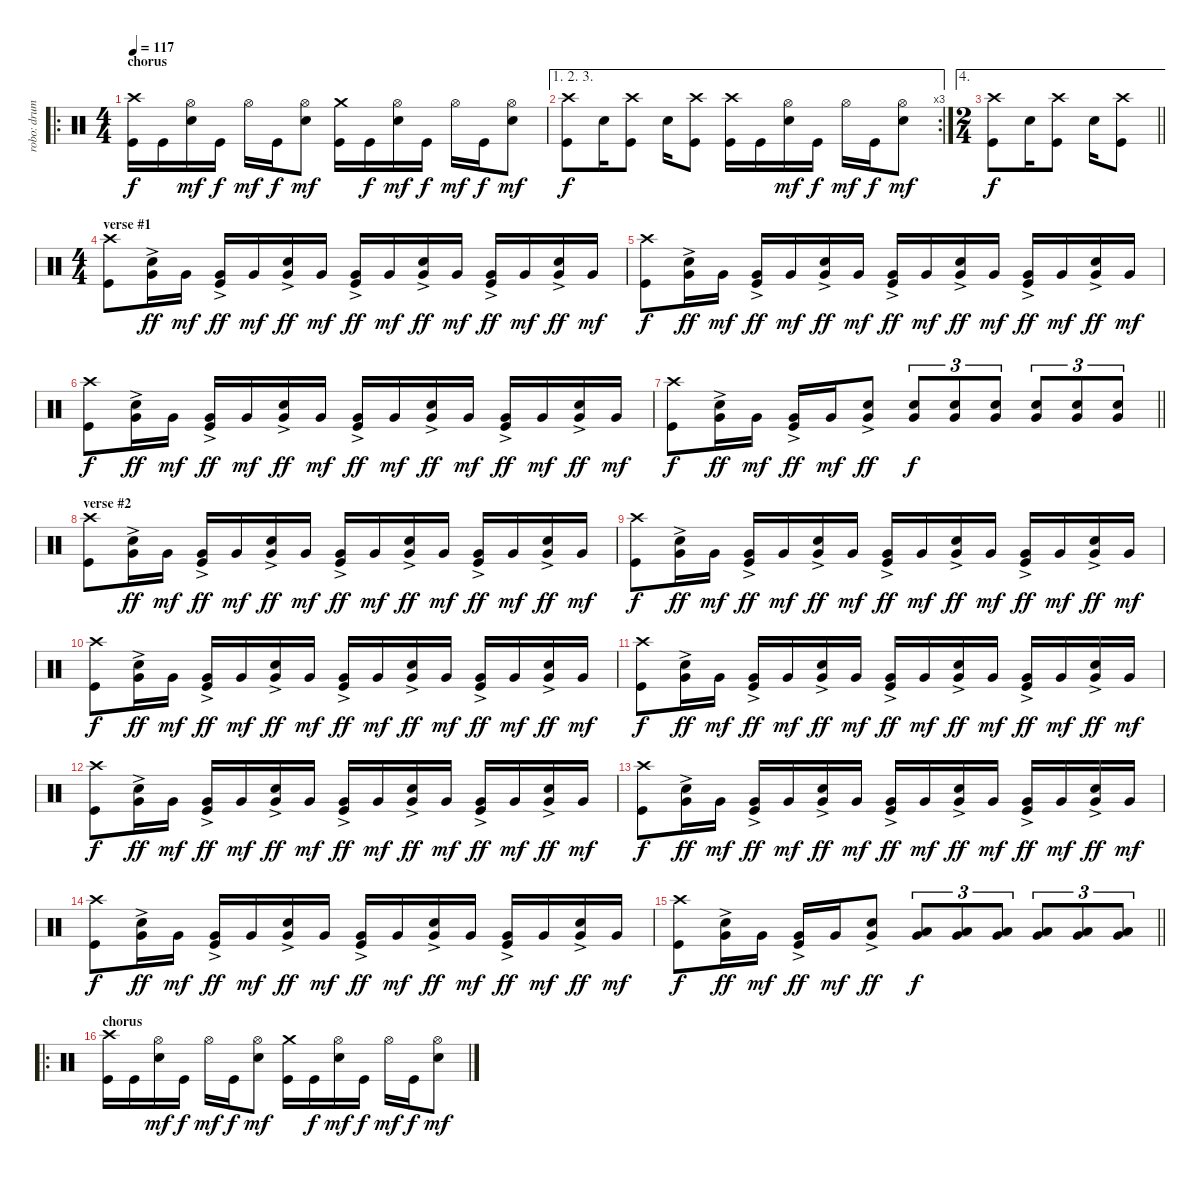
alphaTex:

\track ("robo: drums" "robo: drum") {instrument percussion}
\staff {score}
\articulation defaults
\ro
\ts (4 4)
\section ("" "chorus")
\tempo 117
\clef neutral
\ks c
("Crash high (hit)" "Kick (hit)").16{dy f} "Kick (hit)".16 ("Hi-Hat (open)" "Electric Snare (hit)").16{dy mf} "Kick (hit)".16{dy f} "Hi-Hat (open)".16{dy mf} "Kick (hit)".16{dy f} ("Hi-Hat (open)" "Electric Snare (hit)").8{dy mf} ("Crash medium (hit)" "Kick (hit)").16 "Kick (hit)".16{dy f} ("Hi-Hat (open)" "Electric Snare (hit)").16{dy mf} "Kick (hit)".16{dy f} "Hi-Hat (open)".16{dy mf} "Kick (hit)".16{dy f} ("Hi-Hat (open)" "Electric Snare (hit)").8{dy mf} |
\ae (1 2 3)
\rc 3
("Crash high (hit)" "Kick (hit)").8{dy f} "Electric Snare (hit)".16 ("Crash high (hit)" "Kick (hit)").8 "Electric Snare (hit)".16 ("Crash high (hit)" "Kick (hit)").8 ("Crash high (hit)" "Kick (hit)").16 "Kick (hit)".16 ("Hi-Hat (open)" "Electric Snare (hit)").16{dy mf} "Kick (hit)".16{dy f} "Hi-Hat (open)".16{dy mf} "Kick (hit)".16{dy f} ("Hi-Hat (open)" "Electric Snare (hit)").8{dy mf} |
\ae 4
\ts (2 4)
\barLineRight lightlight
("Crash high (hit)" "Kick (hit)").8{dy f} "Electric Snare (hit)".16 ("Crash high (hit)" "Kick (hit)").8 "Electric Snare (hit)".16 ("Crash high (hit)" "Kick (hit)").8 |
\ts (4 4)
\section ("" "verse #1")
("Crash high (hit)" "Kick (hit)").8 ("Electric Snare (hit)"{ac} "Very Low Tom (hit)"{ac}).16{dy ff} "Very Low Tom (hit)".16{dy mf} ("Very Low Tom (hit)"{ac} "Kick (hit)").16{dy ff} "Very Low Tom (hit)".16{dy mf} ("Electric Snare (hit)"{ac} "Very Low Tom (hit)"{ac}).16{dy ff} "Very Low Tom (hit)".16{dy mf} ("Very Low Tom (hit)"{ac} "Kick (hit)").16{dy ff} "Very Low Tom (hit)".16{dy mf} ("Electric Snare (hit)"{ac} "Very Low Tom (hit)"{ac}).16{dy ff} "Very Low Tom (hit)".16{dy mf} ("Very Low Tom (hit)"{ac} "Kick (hit)").16{dy ff} "Very Low Tom (hit)".16{dy mf} ("Electric Snare (hit)"{ac} "Very Low Tom (hit)"{ac}).16{dy ff} "Very Low Tom (hit)".16{dy mf} |
("Crash high (hit)" "Kick (hit)").8{dy f} ("Electric Snare (hit)"{ac} "Very Low Tom (hit)"{ac}).16{dy ff} "Very Low Tom (hit)".16{dy mf} ("Very Low Tom (hit)"{ac} "Kick (hit)").16{dy ff} "Very Low Tom (hit)".16{dy mf} ("Electric Snare (hit)"{ac} "Very Low Tom (hit)"{ac}).16{dy ff} "Very Low Tom (hit)".16{dy mf} ("Very Low Tom (hit)"{ac} "Kick (hit)").16{dy ff} "Very Low Tom (hit)".16{dy mf} ("Electric Snare (hit)"{ac} "Very Low Tom (hit)"{ac}).16{dy ff} "Very Low Tom (hit)".16{dy mf} ("Very Low Tom (hit)"{ac} "Kick (hit)").16{dy ff} "Very Low Tom (hit)".16{dy mf} ("Electric Snare (hit)"{ac} "Very Low Tom (hit)"{ac}).16{dy ff} "Very Low Tom (hit)".16{dy mf} |
("Crash high (hit)" "Kick (hit)").8{dy f} ("Electric Snare (hit)"{ac} "Very Low Tom (hit)"{ac}).16{dy ff} "Very Low Tom (hit)".16{dy mf} ("Very Low Tom (hit)"{ac} "Kick (hit)").16{dy ff} "Very Low Tom (hit)".16{dy mf} ("Electric Snare (hit)"{ac} "Very Low Tom (hit)"{ac}).16{dy ff} "Very Low Tom (hit)".16{dy mf} ("Very Low Tom (hit)"{ac} "Kick (hit)").16{dy ff} "Very Low Tom (hit)".16{dy mf} ("Electric Snare (hit)"{ac} "Very Low Tom (hit)"{ac}).16{dy ff} "Very Low Tom (hit)".16{dy mf} ("Very Low Tom (hit)"{ac} "Kick (hit)").16{dy ff} "Very Low Tom (hit)".16{dy mf} ("Electric Snare (hit)"{ac} "Very Low Tom (hit)"{ac}).16{dy ff} "Very Low Tom (hit)".16{dy mf} |
\barLineRight lightlight
("Crash high (hit)" "Kick (hit)").8{dy f} ("Electric Snare (hit)"{ac} "Very Low Tom (hit)"{ac}).16{dy ff} "Very Low Tom (hit)".16{dy mf} ("Very Low Tom (hit)"{ac} "Kick (hit)").16{dy ff} "Very Low Tom (hit)".16{dy mf} ("Electric Snare (hit)"{ac} "Very Low Tom (hit)"{ac}).8{dy ff} ("Electric Snare (hit)" "Very Low Tom (hit)").8{tu (3 2) dy f} ("Electric Snare (hit)" "Very Low Tom (hit)").8{tu (3 2)} ("Electric Snare (hit)" "Very Low Tom (hit)").8{tu (3 2)} ("Electric Snare (hit)" "Very Low Tom (hit)").8{tu (3 2)} ("Electric Snare (hit)" "Very Low Tom (hit)").8{tu (3 2)} ("Electric Snare (hit)" "Very Low Tom (hit)").8{tu (3 2)} |
\section ("" "verse #2")
("Crash high (hit)" "Kick (hit)").8 ("Electric Snare (hit)"{ac} "Very Low Tom (hit)"{ac}).16{dy ff} "Very Low Tom (hit)".16{dy mf} ("Very Low Tom (hit)"{ac} "Kick (hit)").16{dy ff} "Very Low Tom (hit)".16{dy mf} ("Electric Snare (hit)"{ac} "Very Low Tom (hit)"{ac}).16{dy ff} "Very Low Tom (hit)".16{dy mf} ("Very Low Tom (hit)"{ac} "Kick (hit)").16{dy ff} "Very Low Tom (hit)".16{dy mf} ("Electric Snare (hit)"{ac} "Very Low Tom (hit)"{ac}).16{dy ff} "Very Low Tom (hit)".16{dy mf} ("Very Low Tom (hit)"{ac} "Kick (hit)").16{dy ff} "Very Low Tom (hit)".16{dy mf} ("Electric Snare (hit)"{ac} "Very Low Tom (hit)"{ac}).16{dy ff} "Very Low Tom (hit)".16{dy mf} |
("Crash high (hit)" "Kick (hit)").8{dy f} ("Electric Snare (hit)"{ac} "Very Low Tom (hit)"{ac}).16{dy ff} "Very Low Tom (hit)".16{dy mf} ("Very Low Tom (hit)"{ac} "Kick (hit)").16{dy ff} "Very Low Tom (hit)".16{dy mf} ("Electric Snare (hit)"{ac} "Very Low Tom (hit)"{ac}).16{dy ff} "Very Low Tom (hit)".16{dy mf} ("Very Low Tom (hit)"{ac} "Kick (hit)").16{dy ff} "Very Low Tom (hit)".16{dy mf} ("Electric Snare (hit)"{ac} "Very Low Tom (hit)"{ac}).16{dy ff} "Very Low Tom (hit)".16{dy mf} ("Very Low Tom (hit)"{ac} "Kick (hit)").16{dy ff} "Very Low Tom (hit)".16{dy mf} ("Electric Snare (hit)"{ac} "Very Low Tom (hit)"{ac}).16{dy ff} "Very Low Tom (hit)".16{dy mf} |
("Crash high (hit)" "Kick (hit)").8{dy f} ("Electric Snare (hit)"{ac} "Very Low Tom (hit)"{ac}).16{dy ff} "Very Low Tom (hit)".16{dy mf} ("Very Low Tom (hit)"{ac} "Kick (hit)").16{dy ff} "Very Low Tom (hit)".16{dy mf} ("Electric Snare (hit)"{ac} "Very Low Tom (hit)"{ac}).16{dy ff} "Very Low Tom (hit)".16{dy mf} ("Very Low Tom (hit)"{ac} "Kick (hit)").16{dy ff} "Very Low Tom (hit)".16{dy mf} ("Electric Snare (hit)"{ac} "Very Low Tom (hit)"{ac}).16{dy ff} "Very Low Tom (hit)".16{dy mf} ("Very Low Tom (hit)"{ac} "Kick (hit)").16{dy ff} "Very Low Tom (hit)".16{dy mf} ("Electric Snare (hit)"{ac} "Very Low Tom (hit)"{ac}).16{dy ff} "Very Low Tom (hit)".16{dy mf} |
("Crash high (hit)" "Kick (hit)").8{dy f} ("Electric Snare (hit)"{ac} "Very Low Tom (hit)"{ac}).16{dy ff} "Very Low Tom (hit)".16{dy mf} ("Very Low Tom (hit)"{ac} "Kick (hit)").16{dy ff} "Very Low Tom (hit)".16{dy mf} ("Electric Snare (hit)"{ac} "Very Low Tom (hit)"{ac}).16{dy ff} "Very Low Tom (hit)".16{dy mf} ("Very Low Tom (hit)"{ac} "Kick (hit)").16{dy ff} "Very Low Tom (hit)".16{dy mf} ("Electric Snare (hit)"{ac} "Very Low Tom (hit)"{ac}).16{dy ff} "Very Low Tom (hit)".16{dy mf} ("Very Low Tom (hit)"{ac} "Kick (hit)").16{dy ff} "Very Low Tom (hit)".16{dy mf} ("Electric Snare (hit)"{ac} "Very Low Tom (hit)"{ac}).16{dy ff} "Very Low Tom (hit)".16{dy mf} |
("Crash high (hit)" "Kick (hit)").8{dy f} ("Electric Snare (hit)"{ac} "Very Low Tom (hit)"{ac}).16{dy ff} "Very Low Tom (hit)".16{dy mf} ("Very Low Tom (hit)"{ac} "Kick (hit)").16{dy ff} "Very Low Tom (hit)".16{dy mf} ("Electric Snare (hit)"{ac} "Very Low Tom (hit)"{ac}).16{dy ff} "Very Low Tom (hit)".16{dy mf} ("Very Low Tom (hit)"{ac} "Kick (hit)").16{dy ff} "Very Low Tom (hit)".16{dy mf} ("Electric Snare (hit)"{ac} "Very Low Tom (hit)"{ac}).16{dy ff} "Very Low Tom (hit)".16{dy mf} ("Very Low Tom (hit)"{ac} "Kick (hit)").16{dy ff} "Very Low Tom (hit)".16{dy mf} ("Electric Snare (hit)"{ac} "Very Low Tom (hit)"{ac}).16{dy ff} "Very Low Tom (hit)".16{dy mf} |
("Crash high (hit)" "Kick (hit)").8{dy f} ("Electric Snare (hit)"{ac} "Very Low Tom (hit)"{ac}).16{dy ff} "Very Low Tom (hit)".16{dy mf} ("Very Low Tom (hit)"{ac} "Kick (hit)").16{dy ff} "Very Low Tom (hit)".16{dy mf} ("Electric Snare (hit)"{ac} "Very Low Tom (hit)"{ac}).16{dy ff} "Very Low Tom (hit)".16{dy mf} ("Very Low Tom (hit)"{ac} "Kick (hit)").16{dy ff} "Very Low Tom (hit)".16{dy mf} ("Electric Snare (hit)"{ac} "Very Low Tom (hit)"{ac}).16{dy ff} "Very Low Tom (hit)".16{dy mf} ("Very Low Tom (hit)"{ac} "Kick (hit)").16{dy ff} "Very Low Tom (hit)".16{dy mf} ("Electric Snare (hit)"{ac} "Very Low Tom (hit)"{ac}).16{dy ff} "Very Low Tom (hit)".16{dy mf} |
("Crash high (hit)" "Kick (hit)").8{dy f} ("Electric Snare (hit)"{ac} "Very Low Tom (hit)"{ac}).16{dy ff} "Very Low Tom (hit)".16{dy mf} ("Very Low Tom (hit)"{ac} "Kick (hit)").16{dy ff} "Very Low Tom (hit)".16{dy mf} ("Electric Snare (hit)"{ac} "Very Low Tom (hit)"{ac}).16{dy ff} "Very Low Tom (hit)".16{dy mf} ("Very Low Tom (hit)"{ac} "Kick (hit)").16{dy ff} "Very Low Tom (hit)".16{dy mf} ("Electric Snare (hit)"{ac} "Very Low Tom (hit)"{ac}).16{dy ff} "Very Low Tom (hit)".16{dy mf} ("Very Low Tom (hit)"{ac} "Kick (hit)").16{dy ff} "Very Low Tom (hit)".16{dy mf} ("Electric Snare (hit)"{ac} "Very Low Tom (hit)"{ac}).16{dy ff} "Very Low Tom (hit)".16{dy mf} |
\barLineRight lightlight
("Crash high (hit)" "Kick (hit)").8{dy f} ("Electric Snare (hit)"{ac} "Very Low Tom (hit)"{ac}).16{dy ff} "Very Low Tom (hit)".16{dy mf} ("Very Low Tom (hit)"{ac} "Kick (hit)").16{dy ff} "Very Low Tom (hit)".16{dy mf} ("Electric Snare (hit)"{ac} "Very Low Tom (hit)"{ac}).8{dy ff} ("Low Tom (hit)" "Very Low Tom (hit)").8{tu (3 2) dy f} ("Low Tom (hit)" "Very Low Tom (hit)").8{tu (3 2)} ("Low Tom (hit)" "Very Low Tom (hit)").8{tu (3 2)} ("Low Tom (hit)" "Very Low Tom (hit)").8{tu (3 2)} ("Low Tom (hit)" "Very Low Tom (hit)").8{tu (3 2)} ("Low Tom (hit)" "Very Low Tom (hit)").8{tu (3 2)} |
\ro
\section ("" "chorus")
("Crash high (hit)" "Kick (hit)").16 "Kick (hit)".16 ("Hi-Hat (open)" "Electric Snare (hit)").16{dy mf} "Kick (hit)".16{dy f} "Hi-Hat (open)".16{dy mf} "Kick (hit)".16{dy f} ("Hi-Hat (open)" "Electric Snare (hit)").8{dy mf} ("Crash medium (hit)" "Kick (hit)").16 "Kick (hit)".16{dy f} ("Hi-Hat (open)" "Electric Snare (hit)").16{dy mf} "Kick (hit)".16{dy f} "Hi-Hat (open)".16{dy mf} "Kick (hit)".16{dy f} ("Hi-Hat (open)" "Electric Snare (hit)").8{dy mf}
